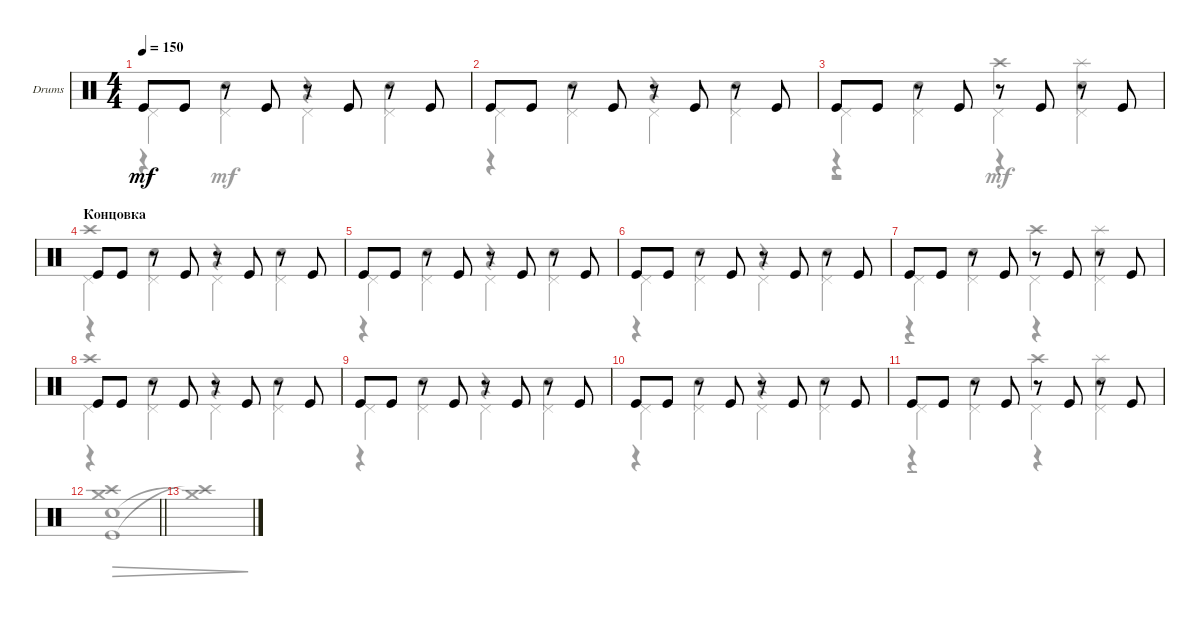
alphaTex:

\defaultSystemsLayout 4
\bracketExtendMode groupsimilarinstruments
\firstSystemTrackNameOrientation horizontal
\otherSystemsTrackNameOrientation horizontal
\track ("Drumkit" "Drums") {instrument percussion}
\staff {score}
\articulation defaults
\voice
\ts (4 4)
\tempo 150
\clef neutral
\ks c "Kick (hit)".8{dy mf} "Kick (hit)".8
r.8 "Kick (hit)".8 r.8 "Kick (hit)".8 r.8 "Kick (hit)".8 |
"Kick (hit)".8 "Kick (hit)".8 r.8 "Kick (hit)".8 r.8 "Kick (hit)".8 r.8 "Kick (hit)".8 |
"Kick (hit)".8 "Kick (hit)".8 r.8 "Kick (hit)".8 r.8 "Kick (hit)".8 r.8 "Kick (hit)".8 |
\section ("" "Концовка")
"Kick (hit)".8 "Kick (hit)".8 r.8 "Kick (hit)".8 r.8 "Kick (hit)".8 r.8 "Kick (hit)".8 |
"Kick (hit)".8 "Kick (hit)".8 r.8 "Kick (hit)".8 r.8 "Kick (hit)".8 r.8 "Kick (hit)".8 |
"Kick (hit)".8 "Kick (hit)".8 r.8 "Kick (hit)".8 r.8 "Kick (hit)".8 r.8 "Kick (hit)".8 |
"Kick (hit)".8 "Kick (hit)".8 r.8 "Kick (hit)".8 r.8 "Kick (hit)".8 r.8 "Kick (hit)".8 |
"Kick (hit)".8 "Kick (hit)".8 r.8 "Kick (hit)".8 r.8 "Kick (hit)".8 r.8 "Kick (hit)".8 |
"Kick (hit)".8 "Kick (hit)".8 r.8 "Kick (hit)".8 r.8 "Kick (hit)".8 r.8 "Kick (hit)".8 |
"Kick (hit)".8 "Kick (hit)".8 r.8 "Kick (hit)".8 r.8 "Kick (hit)".8 r.8 "Kick (hit)".8 |
"Kick (hit)".8 "Kick (hit)".8 r.8 "Kick (hit)".8 r.8 "Kick (hit)".8 r.8 "Kick (hit)".8 |
\barLineRight lightlight
|
\voice
\clef neutral
\ottava regular
\simile none
\ks c "Pedal Hi-Hat (hit)".4{dy mf} "Pedal Hi-Hat (hit)".4 "Pedal Hi-Hat (hit)".4 "Pedal Hi-Hat (hit)".4
|
"Pedal Hi-Hat (hit)".4 "Pedal Hi-Hat (hit)".4 "Pedal Hi-Hat (hit)".4 "Pedal Hi-Hat (hit)".4 |
"Pedal Hi-Hat (hit)".4 "Pedal Hi-Hat (hit)".4 "Pedal Hi-Hat (hit)".4 "Pedal Hi-Hat (hit)".4 |
"Pedal Hi-Hat (hit)".4 "Pedal Hi-Hat (hit)".4 "Pedal Hi-Hat (hit)".4 "Pedal Hi-Hat (hit)".4 |
"Pedal Hi-Hat (hit)".4 "Pedal Hi-Hat (hit)".4 "Pedal Hi-Hat (hit)".4 "Pedal Hi-Hat (hit)".4 |
"Pedal Hi-Hat (hit)".4 "Pedal Hi-Hat (hit)".4 "Pedal Hi-Hat (hit)".4 "Pedal Hi-Hat (hit)".4 |
"Pedal Hi-Hat (hit)".4 "Pedal Hi-Hat (hit)".4 "Pedal Hi-Hat (hit)".4 "Pedal Hi-Hat (hit)".4 |
"Pedal Hi-Hat (hit)".4 "Pedal Hi-Hat (hit)".4 "Pedal Hi-Hat (hit)".4 "Pedal Hi-Hat (hit)".4 |
"Pedal Hi-Hat (hit)".4 "Pedal Hi-Hat (hit)".4 "Pedal Hi-Hat (hit)".4 "Pedal Hi-Hat (hit)".4 |
"Pedal Hi-Hat (hit)".4 "Pedal Hi-Hat (hit)".4 "Pedal Hi-Hat (hit)".4 "Pedal Hi-Hat (hit)".4 |
"Pedal Hi-Hat (hit)".4 "Pedal Hi-Hat (hit)".4 "Pedal Hi-Hat (hit)".4 "Pedal Hi-Hat (hit)".4 |
\barLineRight lightlight
("Snare (hit) 2" "Kick (hit)" "Crash medium (hit)" "Crash high (hit)").1{dec} |
("Crash medium (hit)"{t} "Crash high (hit)"{t}).1{dec}
\voice
\clef neutral
\ottava regular
\simile none
\ks c
r.4{dy mf} "Snare (hit) 2".4 r.4 "Snare (hit) 2".4 |
r.4 "Snare (hit) 2".4 r.4 "Snare (hit) 2".4 |
r.4 "Snare (hit) 2".4 r.4 "Snare (hit) 2".4 |
r.4 "Snare (hit) 2".4 r.4 "Snare (hit) 2".4 |
r.4 "Snare (hit) 2".4 r.4 "Snare (hit) 2".4 |
r.4 "Snare (hit) 2".4 r.4 "Snare (hit) 2".4 |
r.4 "Snare (hit) 2".4 r.4 "Snare (hit) 2".4 |
r.4 "Snare (hit) 2".4 r.4 "Snare (hit) 2".4 |
r.4 "Snare (hit) 2".4 r.4 "Snare (hit) 2".4 |
r.4 "Snare (hit) 2".4 r.4 "Snare (hit) 2".4 |
r.4 "Snare (hit) 2".4 r.4 "Snare (hit) 2".4 |
\barLineRight lightlight
|
\voice
\clef neutral
\ottava regular
\simile none
\ks c
|
|
r.2 "Crash high (hit)".4 "Splash (hit)".4 |
"Crash high (hit)".1 |
|
|
r.2 "Crash high (hit)".4 "Splash (hit)".4 |
"Crash high (hit)".1 |
|
|
r.2 "Crash high (hit)".4 "Splash (hit)".4 |
\barLineRight lightlight
|
